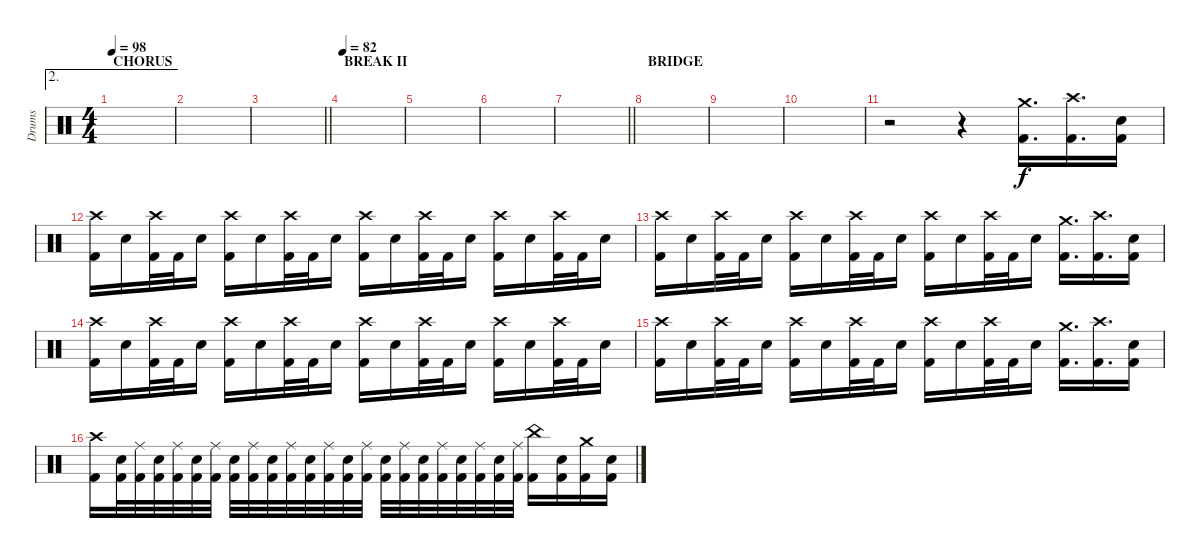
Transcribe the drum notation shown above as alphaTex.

\track ("Drums" "Drums") {instrument percussion}
\staff
\articulation defaults
\ae 2
\ts (4 4)
\section ("" "CHORUS")
\tempo 98
\clef neutral
\ks c
|
|
\barLineRight lightlight
|
\section ("" "BREAK II")
\tempo 82
|
|
|
\barLineRight lightlight
|
\section ("" "BRIDGE")
|
|
|
r.2 r.4 ("Crash medium (hit)" "Kick (hit) 2").16{d} ("Crash high (hit)" "Kick (hit) 2").16{d} ("Snare (hit) 2" "Kick (hit) 2").16 |
("Crash high (hit)" "Kick (hit) 2").16 "Snare (hit) 2".16 ("Crash high (hit)" "Kick (hit) 2").32 "Kick (hit) 2".32 "Snare (hit) 2".16 ("Crash high (hit)" "Kick (hit) 2").16 "Snare (hit) 2".16 ("Crash high (hit)" "Kick (hit) 2").32 "Kick (hit) 2".32 "Snare (hit) 2".16 ("Crash high (hit)" "Kick (hit) 2").16 "Snare (hit) 2".16 ("Crash high (hit)" "Kick (hit) 2").32 "Kick (hit) 2".32 "Snare (hit) 2".16 ("Crash high (hit)" "Kick (hit) 2").16 "Snare (hit) 2".16 ("Crash high (hit)" "Kick (hit) 2").32 "Kick (hit) 2".32 "Snare (hit) 2".16 |
("Crash high (hit)" "Kick (hit) 2").16 "Snare (hit) 2".16 ("Crash high (hit)" "Kick (hit) 2").32 "Kick (hit) 2".32 "Snare (hit) 2".16 ("Crash high (hit)" "Kick (hit) 2").16 "Snare (hit) 2".16 ("Crash high (hit)" "Kick (hit) 2").32 "Kick (hit) 2".32 "Snare (hit) 2".16 ("Crash high (hit)" "Kick (hit) 2").16 "Snare (hit) 2".16 ("Crash high (hit)" "Kick (hit) 2").32 "Kick (hit) 2".32 "Snare (hit) 2".16 ("Crash medium (hit)" "Kick (hit) 2").16{d} ("Crash high (hit)" "Kick (hit) 2").16{d} ("Snare (hit) 2" "Kick (hit) 2").16 |
("Crash high (hit)" "Kick (hit) 2").16 "Snare (hit) 2".16 ("Crash high (hit)" "Kick (hit) 2").32 "Kick (hit) 2".32 "Snare (hit) 2".16 ("Crash high (hit)" "Kick (hit) 2").16 "Snare (hit) 2".16 ("Crash high (hit)" "Kick (hit) 2").32 "Kick (hit) 2".32 "Snare (hit) 2".16 ("Crash high (hit)" "Kick (hit) 2").16 "Snare (hit) 2".16 ("Crash high (hit)" "Kick (hit) 2").32 "Kick (hit) 2".32 "Snare (hit) 2".16 ("Crash high (hit)" "Kick (hit) 2").16 "Snare (hit) 2".16 ("Crash high (hit)" "Kick (hit) 2").32 "Kick (hit) 2".32 "Snare (hit) 2".16 |
("Crash high (hit)" "Kick (hit) 2").16 "Snare (hit) 2".16 ("Crash high (hit)" "Kick (hit) 2").32 "Kick (hit) 2".32 "Snare (hit) 2".16 ("Crash high (hit)" "Kick (hit) 2").16 "Snare (hit) 2".16 ("Crash high (hit)" "Kick (hit) 2").32 "Kick (hit) 2".32 "Snare (hit) 2".16 ("Crash high (hit)" "Kick (hit) 2").16 "Snare (hit) 2".16 ("Crash high (hit)" "Kick (hit) 2").32 "Kick (hit) 2".32 "Snare (hit) 2".16 ("Crash medium (hit)" "Kick (hit) 2").16{d} ("Crash high (hit)" "Kick (hit) 2").16{d} ("Snare (hit) 2" "Kick (hit) 2").16 |
("Crash high (hit)" "Kick (hit) 2").16 ("Snare (hit) 2" "Kick (hit) 2").32 ("Ride (middle)" "Kick (hit) 2").32 ("Snare (hit) 2" "Kick (hit) 2").32 ("Ride (middle)" "Kick (hit) 2").32 ("Snare (hit) 2" "Kick (hit) 2").32 ("Ride (middle)" "Kick (hit) 2").32 ("Snare (hit) 2" "Kick (hit) 2").32 ("Ride (middle)" "Kick (hit) 2").32 ("Snare (hit) 2" "Kick (hit) 2").32 ("Ride (middle)" "Kick (hit) 2").32 ("Snare (hit) 2" "Kick (hit) 2").32 ("Ride (middle)" "Kick (hit) 2").32 ("Snare (hit) 2" "Kick (hit) 2").32 ("Ride (middle)" "Kick (hit) 2").32 ("Snare (hit) 2" "Kick (hit) 2").32 ("Ride (middle)" "Kick (hit) 2").32 ("Snare (hit) 2" "Kick (hit) 2").32 ("Ride (middle)" "Kick (hit) 2").32 ("Snare (hit) 2" "Kick (hit) 2").32 ("Ride (middle)" "Kick (hit) 2").32 ("Snare (hit) 2" "Kick (hit) 2").32 ("Ride (middle)" "Kick (hit) 2").32 ("China (hit)" "Kick (hit) 2").16 ("Snare (hit) 2" "Kick (hit) 2").16 ("Crash medium (hit)" "Kick (hit) 2").16 ("Snare (hit) 2" "Kick (hit) 2").16
